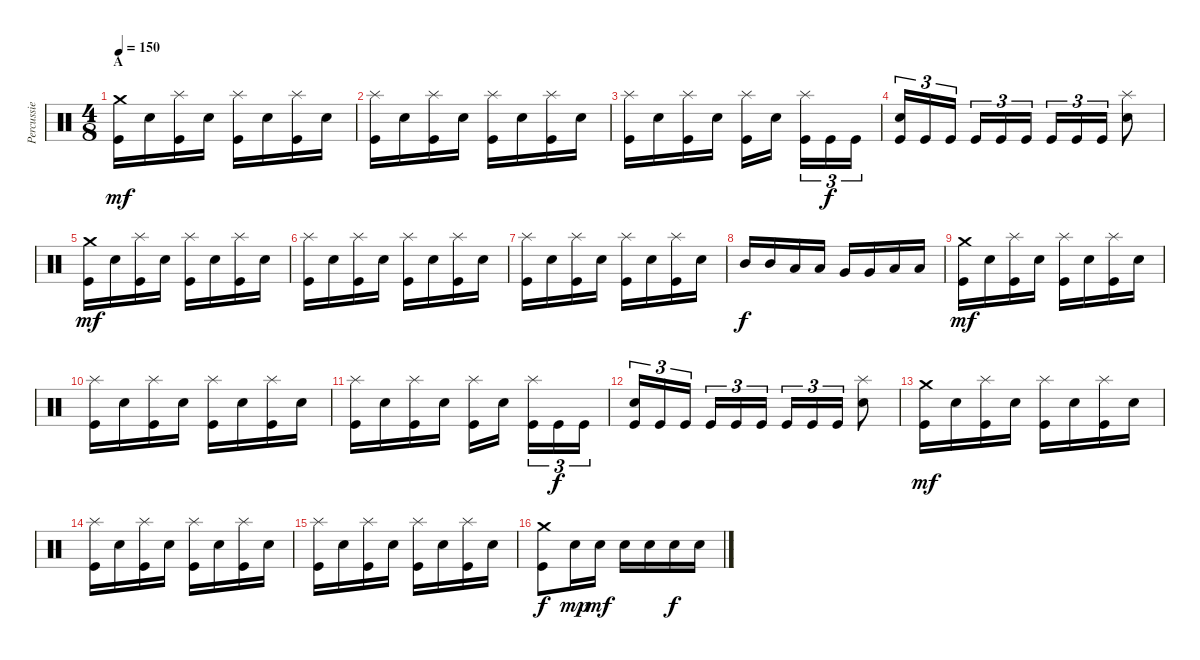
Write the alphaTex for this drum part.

\track ("Percussie" "Percussie") {instrument percussion}
\staff {score}
\articulation defaults
\ts (4 8)
\section ("" "A")
\tempo 150
\clef neutral
\ks c
("Crash medium (hit)" "Kick (hit)").16{dy mf volume 13} "Electric Snare (hit)".16 ("Splash (hit)" "Kick (hit)").16 "Electric Snare (hit)".16 ("Splash (hit)" "Kick (hit)").16 "Electric Snare (hit)".16 ("Splash (hit)" "Kick (hit)").16 "Electric Snare (hit)".16 |
("Splash (hit)" "Kick (hit)").16 "Electric Snare (hit)".16 ("Splash (hit)" "Kick (hit)").16 "Electric Snare (hit)".16 ("Splash (hit)" "Kick (hit)").16 "Electric Snare (hit)".16 ("Splash (hit)" "Kick (hit)").16 "Electric Snare (hit)".16 |
("Splash (hit)" "Kick (hit)").16 "Electric Snare (hit)".16 ("Splash (hit)" "Kick (hit)").16 "Electric Snare (hit)".16 ("Splash (hit)" "Kick (hit)").16 "Electric Snare (hit)".16 ("Splash (hit)" "Kick (hit)").16{tu (3 2)} "Kick (hit)".16{tu (3 2) dy f} "Kick (hit)".16{tu (3 2)} |
("Electric Snare (hit)" "Kick (hit)").16{tu (3 2)} "Kick (hit)".16{tu (3 2)} "Kick (hit)".16{tu (3 2)} "Kick (hit)".16{tu (3 2)} "Kick (hit)".16{tu (3 2)} "Kick (hit)".16{tu (3 2)} "Kick (hit)".16{tu (3 2)} "Kick (hit)".16{tu (3 2)} "Kick (hit)".16{tu (3 2)} ("Splash (hit)" "Electric Snare (hit)").8 |
("Crash medium (hit)" "Kick (hit)").16{dy mf} "Electric Snare (hit)".16 ("Splash (hit)" "Kick (hit)").16 "Electric Snare (hit)".16 ("Splash (hit)" "Kick (hit)").16 "Electric Snare (hit)".16 ("Splash (hit)" "Kick (hit)").16 "Electric Snare (hit)".16 |
("Splash (hit)" "Kick (hit)").16 "Electric Snare (hit)".16 ("Splash (hit)" "Kick (hit)").16 "Electric Snare (hit)".16 ("Splash (hit)" "Kick (hit)").16 "Electric Snare (hit)".16 ("Splash (hit)" "Kick (hit)").16 "Electric Snare (hit)".16 |
("Splash (hit)" "Kick (hit)").16 "Electric Snare (hit)".16 ("Splash (hit)" "Kick (hit)").16 "Electric Snare (hit)".16 ("Splash (hit)" "Kick (hit)").16 "Electric Snare (hit)".16 ("Splash (hit)" "Kick (hit)").16 "Electric Snare (hit)".16 |
"Mid Tom (hit)".16{dy f} "Mid Tom (hit)".16 "Low Tom (hit)".16 "Low Tom (hit)".16 "Very Low Tom (hit)".16 "Very Low Tom (hit)".16 "Low Floor Tom (hit)".16 "Low Floor Tom (hit)".16 |
("Crash medium (hit)" "Kick (hit)").16{dy mf} "Electric Snare (hit)".16 ("Splash (hit)" "Kick (hit)").16 "Electric Snare (hit)".16 ("Splash (hit)" "Kick (hit)").16 "Electric Snare (hit)".16 ("Splash (hit)" "Kick (hit)").16 "Electric Snare (hit)".16 |
("Splash (hit)" "Kick (hit)").16 "Electric Snare (hit)".16 ("Splash (hit)" "Kick (hit)").16 "Electric Snare (hit)".16 ("Splash (hit)" "Kick (hit)").16 "Electric Snare (hit)".16 ("Splash (hit)" "Kick (hit)").16 "Electric Snare (hit)".16 |
("Splash (hit)" "Kick (hit)").16 "Electric Snare (hit)".16 ("Splash (hit)" "Kick (hit)").16 "Electric Snare (hit)".16 ("Splash (hit)" "Kick (hit)").16 "Electric Snare (hit)".16 ("Splash (hit)" "Kick (hit)").16{tu (3 2)} "Kick (hit)".16{tu (3 2) dy f} "Kick (hit)".16{tu (3 2)} |
("Electric Snare (hit)" "Kick (hit)").16{tu (3 2)} "Kick (hit)".16{tu (3 2)} "Kick (hit)".16{tu (3 2)} "Kick (hit)".16{tu (3 2)} "Kick (hit)".16{tu (3 2)} "Kick (hit)".16{tu (3 2)} "Kick (hit)".16{tu (3 2)} "Kick (hit)".16{tu (3 2)} "Kick (hit)".16{tu (3 2)} ("Splash (hit)" "Electric Snare (hit)").8 |
("Crash medium (hit)" "Kick (hit)").16{dy mf} "Electric Snare (hit)".16 ("Splash (hit)" "Kick (hit)").16 "Electric Snare (hit)".16 ("Splash (hit)" "Kick (hit)").16 "Electric Snare (hit)".16 ("Splash (hit)" "Kick (hit)").16 "Electric Snare (hit)".16 |
("Splash (hit)" "Kick (hit)").16 "Electric Snare (hit)".16 ("Splash (hit)" "Kick (hit)").16 "Electric Snare (hit)".16 ("Splash (hit)" "Kick (hit)").16 "Electric Snare (hit)".16 ("Splash (hit)" "Kick (hit)").16 "Electric Snare (hit)".16 |
("Splash (hit)" "Kick (hit)").16 "Electric Snare (hit)".16 ("Splash (hit)" "Kick (hit)").16 "Electric Snare (hit)".16 ("Splash (hit)" "Kick (hit)").16 "Electric Snare (hit)".16 ("Splash (hit)" "Kick (hit)").16 "Electric Snare (hit)".16 |
("Crash medium (hit)" "Kick (hit)").8{dy f} "Electric Snare (hit)".16{dy mp} "Electric Snare (hit)".16{dy mf} "Electric Snare (hit)".16 "Electric Snare (hit)".16 "Electric Snare (hit)".16{dy f} "Electric Snare (hit)".16
